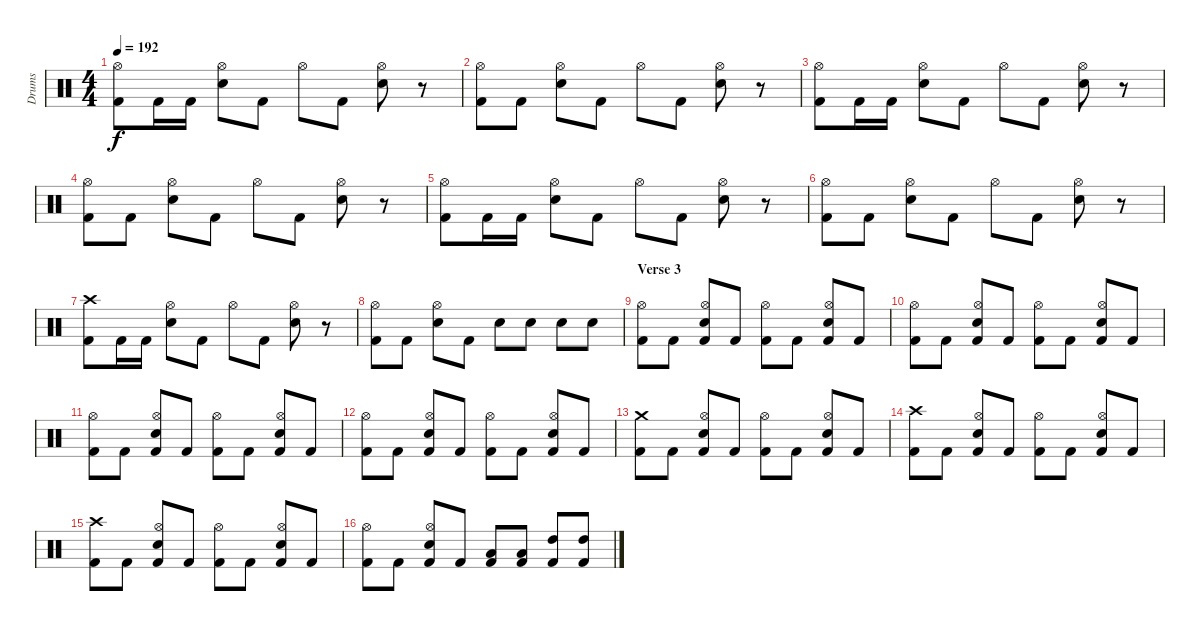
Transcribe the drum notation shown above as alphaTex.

\track ("Drums" "Drums") {instrument percussion}
\staff {score}
\articulation defaults
\ts (4 4)
\tempo 192
\clef neutral
\ks c
("Kick (hit) 2" "Hi-Hat (open)").8{dy f} "Kick (hit) 2".16 "Kick (hit) 2".16 ("Snare (hit) 2" "Hi-Hat (open)").8 "Kick (hit) 2".8 "Hi-Hat (open)".8 "Kick (hit) 2".8 ("Snare (hit) 2" "Hi-Hat (open)").8 r.8 |
("Kick (hit) 2" "Hi-Hat (open)").8 "Kick (hit) 2".8 ("Snare (hit) 2" "Hi-Hat (open)").8 "Kick (hit) 2".8 "Hi-Hat (open)".8 "Kick (hit) 2".8 ("Snare (hit) 2" "Hi-Hat (open)").8 r.8 |
("Kick (hit) 2" "Hi-Hat (open)").8 "Kick (hit) 2".16 "Kick (hit) 2".16 ("Snare (hit) 2" "Hi-Hat (open)").8 "Kick (hit) 2".8 "Hi-Hat (open)".8 "Kick (hit) 2".8 ("Snare (hit) 2" "Hi-Hat (open)").8 r.8 |
("Kick (hit) 2" "Hi-Hat (open)").8 "Kick (hit) 2".8 ("Snare (hit) 2" "Hi-Hat (open)").8 "Kick (hit) 2".8 "Hi-Hat (open)".8 "Kick (hit) 2".8 ("Snare (hit) 2" "Hi-Hat (open)").8 r.8 |
("Kick (hit) 2" "Hi-Hat (open)").8 "Kick (hit) 2".16 "Kick (hit) 2".16 ("Snare (hit) 2" "Hi-Hat (open)").8 "Kick (hit) 2".8 "Hi-Hat (open)".8 "Kick (hit) 2".8 ("Snare (hit) 2" "Hi-Hat (open)").8 r.8 |
("Kick (hit) 2" "Hi-Hat (open)").8 "Kick (hit) 2".8 ("Snare (hit) 2" "Hi-Hat (open)").8 "Kick (hit) 2".8 "Hi-Hat (open)".8 "Kick (hit) 2".8 ("Snare (hit) 2" "Hi-Hat (open)").8 r.8 |
("Kick (hit) 2" "Crash high (hit)").8 "Kick (hit) 2".16 "Kick (hit) 2".16 ("Snare (hit) 2" "Hi-Hat (open)").8 "Kick (hit) 2".8 "Hi-Hat (open)".8 "Kick (hit) 2".8 ("Snare (hit) 2" "Hi-Hat (open)").8 r.8 |
("Kick (hit) 2" "Hi-Hat (open)").8 "Kick (hit) 2".8 ("Snare (hit) 2" "Hi-Hat (open)").8 "Kick (hit) 2".8 "Snare (hit) 2".8 "Snare (hit) 2".8 "Snare (hit) 2".8 "Snare (hit) 2".8 |
\section ("" "Verse 3")
("Kick (hit) 2" "Hi-Hat (open)").8 "Kick (hit) 2".8 ("Kick (hit) 2" "Snare (hit) 2" "Hi-Hat (open)").8 "Kick (hit) 2".8 ("Kick (hit) 2" "Hi-Hat (open)").8 "Kick (hit) 2".8 ("Kick (hit) 2" "Snare (hit) 2" "Hi-Hat (open)").8 "Kick (hit) 2".8 |
("Kick (hit) 2" "Hi-Hat (open)").8 "Kick (hit) 2".8 ("Kick (hit) 2" "Snare (hit) 2" "Hi-Hat (open)").8 "Kick (hit) 2".8 ("Kick (hit) 2" "Hi-Hat (open)").8 "Kick (hit) 2".8 ("Kick (hit) 2" "Snare (hit) 2" "Hi-Hat (open)").8 "Kick (hit) 2".8 |
("Kick (hit) 2" "Hi-Hat (open)").8 "Kick (hit) 2".8 ("Kick (hit) 2" "Snare (hit) 2" "Hi-Hat (open)").8 "Kick (hit) 2".8 ("Kick (hit) 2" "Hi-Hat (open)").8 "Kick (hit) 2".8 ("Kick (hit) 2" "Snare (hit) 2" "Hi-Hat (open)").8 "Kick (hit) 2".8 |
("Kick (hit) 2" "Hi-Hat (open)").8 "Kick (hit) 2".8 ("Kick (hit) 2" "Snare (hit) 2" "Hi-Hat (open)").8 "Kick (hit) 2".8 ("Kick (hit) 2" "Hi-Hat (open)").8 "Kick (hit) 2".8 ("Kick (hit) 2" "Snare (hit) 2" "Hi-Hat (open)").8 "Kick (hit) 2".8 |
("Kick (hit) 2" "Crash medium (hit)").8 "Kick (hit) 2".8 ("Kick (hit) 2" "Snare (hit) 2" "Hi-Hat (open)").8 "Kick (hit) 2".8 ("Kick (hit) 2" "Hi-Hat (open)").8 "Kick (hit) 2".8 ("Kick (hit) 2" "Snare (hit) 2" "Hi-Hat (open)").8 "Kick (hit) 2".8 |
("Kick (hit) 2" "Crash high (hit)").8 "Kick (hit) 2".8 ("Kick (hit) 2" "Snare (hit) 2" "Hi-Hat (open)").8 "Kick (hit) 2".8 ("Kick (hit) 2" "Hi-Hat (open)").8 "Kick (hit) 2".8 ("Kick (hit) 2" "Snare (hit) 2" "Hi-Hat (open)").8 "Kick (hit) 2".8 |
("Kick (hit) 2" "Crash high (hit)").8 "Kick (hit) 2".8 ("Kick (hit) 2" "Snare (hit) 2" "Hi-Hat (open)").8 "Kick (hit) 2".8 ("Kick (hit) 2" "Hi-Hat (open)").8 "Kick (hit) 2".8 ("Kick (hit) 2" "Snare (hit) 2" "Hi-Hat (open)").8 "Kick (hit) 2".8 |
("Kick (hit) 2" "Hi-Hat (open)").8 "Kick (hit) 2".8 ("Kick (hit) 2" "Snare (hit) 2" "Hi-Hat (open)").8 "Kick (hit) 2".8 ("Kick (hit) 2" "Low Tom (hit)").8 ("Kick (hit) 2" "Low Tom (hit)").8 ("Kick (hit) 2" "High Tom (hit)").8 ("Kick (hit) 2" "High Tom (hit)").8
